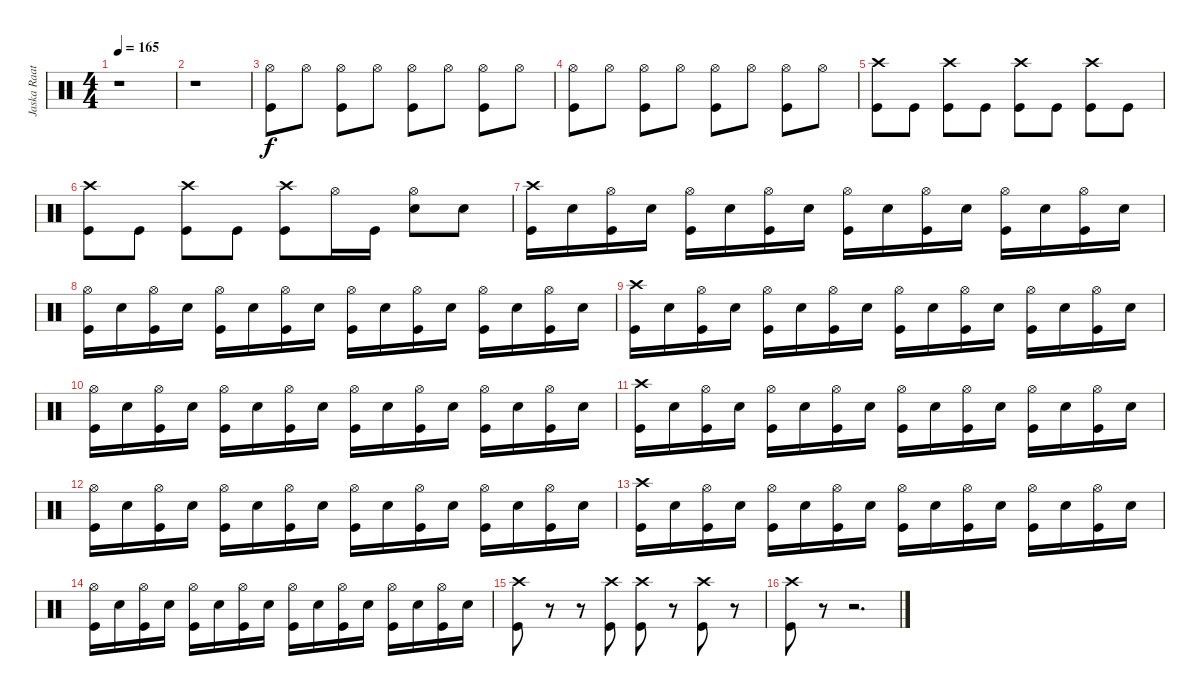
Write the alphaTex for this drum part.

\track ("Jaska Raatikainen" "Jaska Raat") {instrument percussion}
\staff {score}
\articulation defaults
\ts (4 4)
\tempo 165
\clef neutral
\ks c
r.1{dy f} |
r.1 |
("Hi-Hat (open)" "Kick (hit)").8 "Hi-Hat (open)".8 ("Hi-Hat (open)" "Kick (hit)").8 "Hi-Hat (open)".8 ("Hi-Hat (open)" "Kick (hit)").8 "Hi-Hat (open)".8 ("Hi-Hat (open)" "Kick (hit)").8 "Hi-Hat (open)".8 |
("Hi-Hat (open)" "Kick (hit)").8 "Hi-Hat (open)".8 ("Hi-Hat (open)" "Kick (hit)").8 "Hi-Hat (open)".8 ("Hi-Hat (open)" "Kick (hit)").8 "Hi-Hat (open)".8 ("Hi-Hat (open)" "Kick (hit)").8 "Hi-Hat (open)".8 |
("Crash high (hit)" "Kick (hit)").8 "Kick (hit)".8 ("Crash high (hit)" "Kick (hit)").8 "Kick (hit)".8 ("Crash high (hit)" "Kick (hit)").8 "Kick (hit)".8 ("Crash high (hit)" "Kick (hit)").8 "Kick (hit)".8 |
("Crash high (hit)" "Kick (hit)").8 "Kick (hit)".8 ("Crash high (hit)" "Kick (hit)").8 "Kick (hit)".8 ("Crash high (hit)" "Kick (hit)").8 "Hi-Hat (open)".16 "Kick (hit)".16 ("Hi-Hat (open)" "Electric Snare (hit)").8 "Electric Snare (hit)".8 |
("Crash high (hit)" "Kick (hit)").16 "Electric Snare (hit)".16 ("Hi-Hat (open)" "Kick (hit)").16 "Electric Snare (hit)".16 ("Hi-Hat (open)" "Kick (hit)").16 "Electric Snare (hit)".16 ("Hi-Hat (open)" "Kick (hit)").16 "Electric Snare (hit)".16 ("Hi-Hat (open)" "Kick (hit)").16 "Electric Snare (hit)".16 ("Hi-Hat (open)" "Kick (hit)").16 "Electric Snare (hit)".16 ("Hi-Hat (open)" "Kick (hit)").16 "Electric Snare (hit)".16 ("Hi-Hat (open)" "Kick (hit)").16 "Electric Snare (hit)".16 |
("Hi-Hat (open)" "Kick (hit)").16 "Electric Snare (hit)".16 ("Hi-Hat (open)" "Kick (hit)").16 "Electric Snare (hit)".16 ("Hi-Hat (open)" "Kick (hit)").16 "Electric Snare (hit)".16 ("Hi-Hat (open)" "Kick (hit)").16 "Electric Snare (hit)".16 ("Hi-Hat (open)" "Kick (hit)").16 "Electric Snare (hit)".16 ("Hi-Hat (open)" "Kick (hit)").16 "Electric Snare (hit)".16 ("Hi-Hat (open)" "Kick (hit)").16 "Electric Snare (hit)".16 ("Hi-Hat (open)" "Kick (hit)").16 "Electric Snare (hit)".16 |
("Crash high (hit)" "Kick (hit)").16 "Electric Snare (hit)".16 ("Hi-Hat (open)" "Kick (hit)").16 "Electric Snare (hit)".16 ("Hi-Hat (open)" "Kick (hit)").16 "Electric Snare (hit)".16 ("Hi-Hat (open)" "Kick (hit)").16 "Electric Snare (hit)".16 ("Hi-Hat (open)" "Kick (hit)").16 "Electric Snare (hit)".16 ("Hi-Hat (open)" "Kick (hit)").16 "Electric Snare (hit)".16 ("Hi-Hat (open)" "Kick (hit)").16 "Electric Snare (hit)".16 ("Hi-Hat (open)" "Kick (hit)").16 "Electric Snare (hit)".16 |
("Hi-Hat (open)" "Kick (hit)").16 "Electric Snare (hit)".16 ("Hi-Hat (open)" "Kick (hit)").16 "Electric Snare (hit)".16 ("Hi-Hat (open)" "Kick (hit)").16 "Electric Snare (hit)".16 ("Hi-Hat (open)" "Kick (hit)").16 "Electric Snare (hit)".16 ("Hi-Hat (open)" "Kick (hit)").16 "Electric Snare (hit)".16 ("Hi-Hat (open)" "Kick (hit)").16 "Electric Snare (hit)".16 ("Hi-Hat (open)" "Kick (hit)").16 "Electric Snare (hit)".16 ("Hi-Hat (open)" "Kick (hit)").16 "Electric Snare (hit)".16 |
("Crash high (hit)" "Kick (hit)").16 "Electric Snare (hit)".16 ("Hi-Hat (open)" "Kick (hit)").16 "Electric Snare (hit)".16 ("Hi-Hat (open)" "Kick (hit)").16 "Electric Snare (hit)".16 ("Hi-Hat (open)" "Kick (hit)").16 "Electric Snare (hit)".16 ("Hi-Hat (open)" "Kick (hit)").16 "Electric Snare (hit)".16 ("Hi-Hat (open)" "Kick (hit)").16 "Electric Snare (hit)".16 ("Hi-Hat (open)" "Kick (hit)").16 "Electric Snare (hit)".16 ("Hi-Hat (open)" "Kick (hit)").16 "Electric Snare (hit)".16 |
("Hi-Hat (open)" "Kick (hit)").16 "Electric Snare (hit)".16 ("Hi-Hat (open)" "Kick (hit)").16 "Electric Snare (hit)".16 ("Hi-Hat (open)" "Kick (hit)").16 "Electric Snare (hit)".16 ("Hi-Hat (open)" "Kick (hit)").16 "Electric Snare (hit)".16 ("Hi-Hat (open)" "Kick (hit)").16 "Electric Snare (hit)".16 ("Hi-Hat (open)" "Kick (hit)").16 "Electric Snare (hit)".16 ("Hi-Hat (open)" "Kick (hit)").16 "Electric Snare (hit)".16 ("Hi-Hat (open)" "Kick (hit)").16 "Electric Snare (hit)".16 |
("Crash high (hit)" "Kick (hit)").16 "Electric Snare (hit)".16 ("Hi-Hat (open)" "Kick (hit)").16 "Electric Snare (hit)".16 ("Hi-Hat (open)" "Kick (hit)").16 "Electric Snare (hit)".16 ("Hi-Hat (open)" "Kick (hit)").16 "Electric Snare (hit)".16 ("Hi-Hat (open)" "Kick (hit)").16 "Electric Snare (hit)".16 ("Hi-Hat (open)" "Kick (hit)").16 "Electric Snare (hit)".16 ("Hi-Hat (open)" "Kick (hit)").16 "Electric Snare (hit)".16 ("Hi-Hat (open)" "Kick (hit)").16 "Electric Snare (hit)".16 |
("Hi-Hat (open)" "Kick (hit)").16 "Electric Snare (hit)".16 ("Hi-Hat (open)" "Kick (hit)").16 "Electric Snare (hit)".16 ("Hi-Hat (open)" "Kick (hit)").16 "Electric Snare (hit)".16 ("Hi-Hat (open)" "Kick (hit)").16 "Electric Snare (hit)".16 ("Hi-Hat (open)" "Kick (hit)").16 "Electric Snare (hit)".16 ("Hi-Hat (open)" "Kick (hit)").16 "Electric Snare (hit)".16 ("Hi-Hat (open)" "Kick (hit)").16 "Electric Snare (hit)".16 ("Hi-Hat (open)" "Kick (hit)").16 "Electric Snare (hit)".16 |
("Crash high (hit)" "Kick (hit)").8 r.8 r.8 ("Crash high (hit)" "Kick (hit)").8 ("Crash high (hit)" "Kick (hit)").8 r.8 ("Crash high (hit)" "Kick (hit)").8 r.8 |
("Crash high (hit)" "Kick (hit)").8 r.8 r.2{d}
